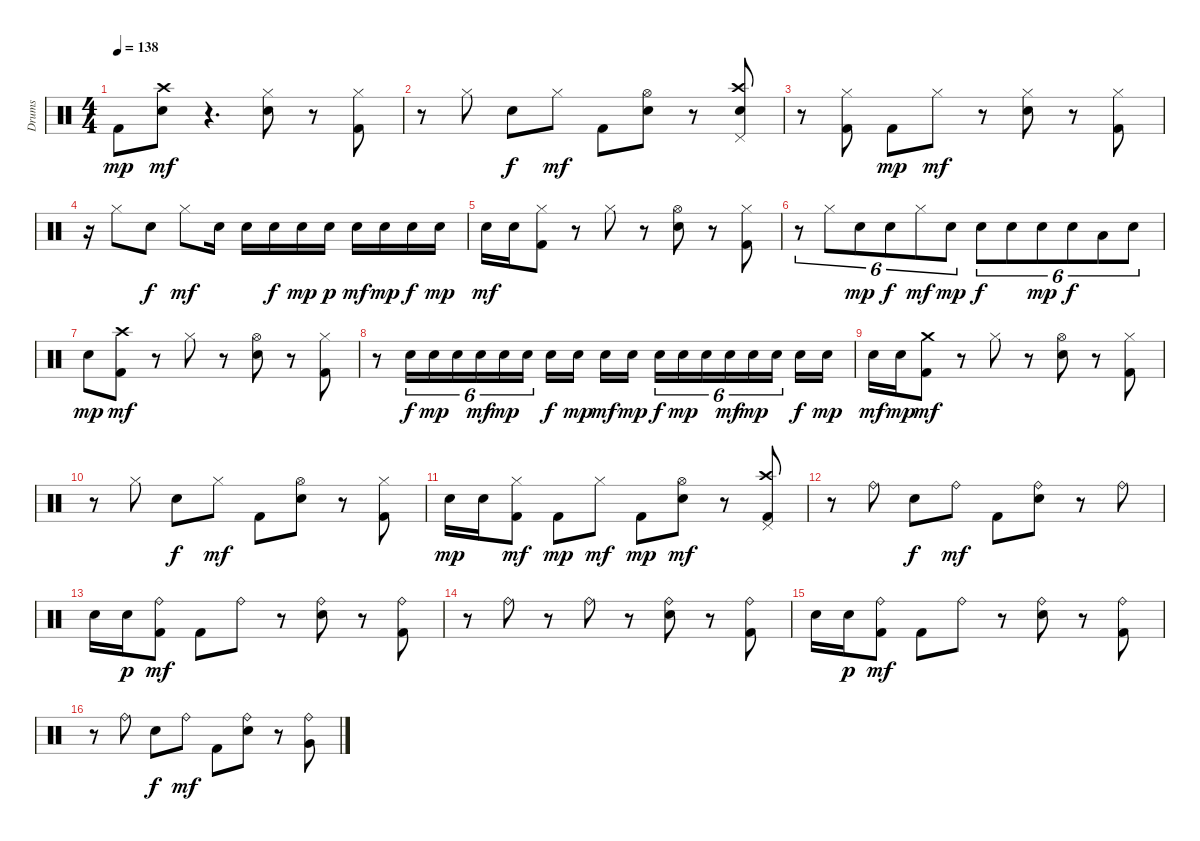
\track ("Drums" "Drums") {instrument percussion}
\staff {score}
\articulation defaults
\ts (4 4)
\tempo 138
\clef neutral
\ks c "Kick (hit) 2".8{dy mp}
("Electric Snare (hit)" "Crash high (hit)").8{dy mf} r.4{d} ("Electric Snare (hit)" "Hi-Hat (closed)").8 r.8 ("Kick (hit) 2" "Hi-Hat (closed)").8 |
r.8 "Hi-Hat (closed)".8 "Electric Snare (hit)".8{dy f} "Hi-Hat (closed)".8{dy mf} "Kick (hit) 2".8 ("Electric Snare (hit)" "Hi-Hat (open)").8 r.8 ("Electric Snare (hit)" "Pedal Hi-Hat (hit)" "Crash high (hit)").8 |
r.8 ("Kick (hit) 2" "Hi-Hat (closed)").8 "Kick (hit) 2".8{dy mp} "Hi-Hat (closed)".8{dy mf} r.8 ("Electric Snare (hit)" "Hi-Hat (closed)").8 r.8 ("Kick (hit) 2" "Hi-Hat (closed)").8 |
r.16 "Hi-Hat (closed)".8 "Electric Snare (hit)".8{dy f} "Hi-Hat (closed)".8{dy mf} "Electric Snare (hit)".16 "Electric Snare (hit)".16 "Electric Snare (hit)".16{dy f} "Electric Snare (hit)".16{dy mp} "Electric Snare (hit)".16{dy p} "Electric Snare (hit)".16{dy mf} "Electric Snare (hit)".16{dy mp} "Electric Snare (hit)".16{dy f} "Electric Snare (hit)".16{dy mp} |
"Electric Snare (hit)".16{dy mf} "Electric Snare (hit)".16 ("Kick (hit) 2" "Hi-Hat (closed)").8 r.8 "Hi-Hat (closed)".8 r.8 ("Electric Snare (hit)" "Hi-Hat (open)").8 r.8 ("Kick (hit) 2" "Hi-Hat (closed)").8 |
r.8{tu (6 4)} "Hi-Hat (closed)".8{tu (6 4)} "Electric Snare (hit)".8{tu (6 4) dy mp} "Electric Snare (hit)".8{tu (6 4) dy f} "Hi-Hat (closed)".8{tu (6 4) dy mf} "Electric Snare (hit)".8{tu (6 4) dy mp} "Electric Snare (hit)".8{tu (6 4) dy f} "Electric Snare (hit)".8{tu (6 4)} "Electric Snare (hit)".8{tu (6 4) dy mp} "Electric Snare (hit)".8{tu (6 4) dy f} "Low Tom (hit)".8{tu (6 4)} "Electric Snare (hit)".8{tu (6 4)} |
"Electric Snare (hit)".8{dy mp} ("Kick (hit) 2" "Crash high (hit)").8{dy mf} r.8 "Hi-Hat (closed)".8 r.8 ("Electric Snare (hit)" "Hi-Hat (open)").8 r.8 ("Kick (hit) 2" "Hi-Hat (closed)").8 |
r.8 "Electric Snare (hit)".16{tu (6 4) dy f} "Electric Snare (hit)".16{tu (6 4) dy mp} "Electric Snare (hit)".16{tu (6 4)} "Electric Snare (hit)".16{tu (6 4) dy mf} "Electric Snare (hit)".16{tu (6 4) dy mp} "Electric Snare (hit)".16{tu (6 4) beam splitsecondary} "Electric Snare (hit)".16{dy f} "Electric Snare (hit)".16{dy mp} "Electric Snare (hit)".16{dy mf} "Electric Snare (hit)".16{dy mp beam splitsecondary} "Electric Snare (hit)".16{tu (6 4) dy f} "Electric Snare (hit)".16{tu (6 4) dy mp} "Electric Snare (hit)".16{tu (6 4)} "Electric Snare (hit)".16{tu (6 4) dy mf} "Electric Snare (hit)".16{tu (6 4) dy mp} "Electric Snare (hit)".16{tu (6 4) beam splitsecondary} "Electric Snare (hit)".16{dy f} "Electric Snare (hit)".16{dy mp} |
"Electric Snare (hit)".16{dy mf} "Electric Snare (hit)".16{dy mp} ("Kick (hit) 2" "Crash medium (hit)").8{dy mf} r.8 "Hi-Hat (closed)".8 r.8 ("Electric Snare (hit)" "Hi-Hat (open)").8 r.8 ("Kick (hit) 2" "Hi-Hat (closed)").8 |
r.8 "Hi-Hat (closed)".8 "Electric Snare (hit)".8{dy f} "Hi-Hat (closed)".8{dy mf} "Kick (hit) 2".8 ("Electric Snare (hit)" "Hi-Hat (open)").8 r.8 ("Kick (hit) 2" "Hi-Hat (closed)").8 |
"Electric Snare (hit)".16{dy mp} "Electric Snare (hit)".16 ("Kick (hit) 2" "Hi-Hat (closed)").8{dy mf} "Kick (hit) 2".8{dy mp} "Hi-Hat (closed)".8{dy mf} "Kick (hit) 2".8{dy mp} ("Electric Snare (hit)" "Hi-Hat (open)").8{dy mf} r.8 ("Kick (hit) 2" "Pedal Hi-Hat (hit)" "Crash high (hit)").8 |
r.8 "Ride (bell)".8 "Electric Snare (hit)".8{dy f} "Ride (bell)".8{dy mf} "Kick (hit) 2".8 ("Electric Snare (hit)" "Ride (bell)").8 r.8 "Ride (bell)".8 |
"Electric Snare (hit)".16 "Electric Snare (hit)".16{dy p} ("Kick (hit) 2" "Ride (bell)").8{dy mf} "Kick (hit) 2".8 "Ride (bell)".8 r.8 ("Electric Snare (hit)" "Ride (bell)").8 r.8 ("Kick (hit) 2" "Ride (bell)").8 |
r.8 "Ride (bell)".8 r.8 "Ride (bell)".8 r.8 ("Electric Snare (hit)" "Ride (bell)").8 r.8 ("Kick (hit) 2" "Ride (bell)").8 |
"Electric Snare (hit)".16 "Electric Snare (hit)".16{dy p} ("Kick (hit) 2" "Ride (bell)").8{dy mf} "Kick (hit) 2".8 "Ride (bell)".8 r.8 ("Electric Snare (hit)" "Ride (bell)").8 r.8 ("Kick (hit) 2" "Ride (bell)").8 |
r.8 "Ride (bell)".8 "Electric Snare (hit)".8{dy f} "Ride (bell)".8{dy mf} "Kick (hit) 2".8 ("Electric Snare (hit)" "Ride (bell)").8 r.8 ("Very Low Tom (hit)" "Ride (bell)").8
